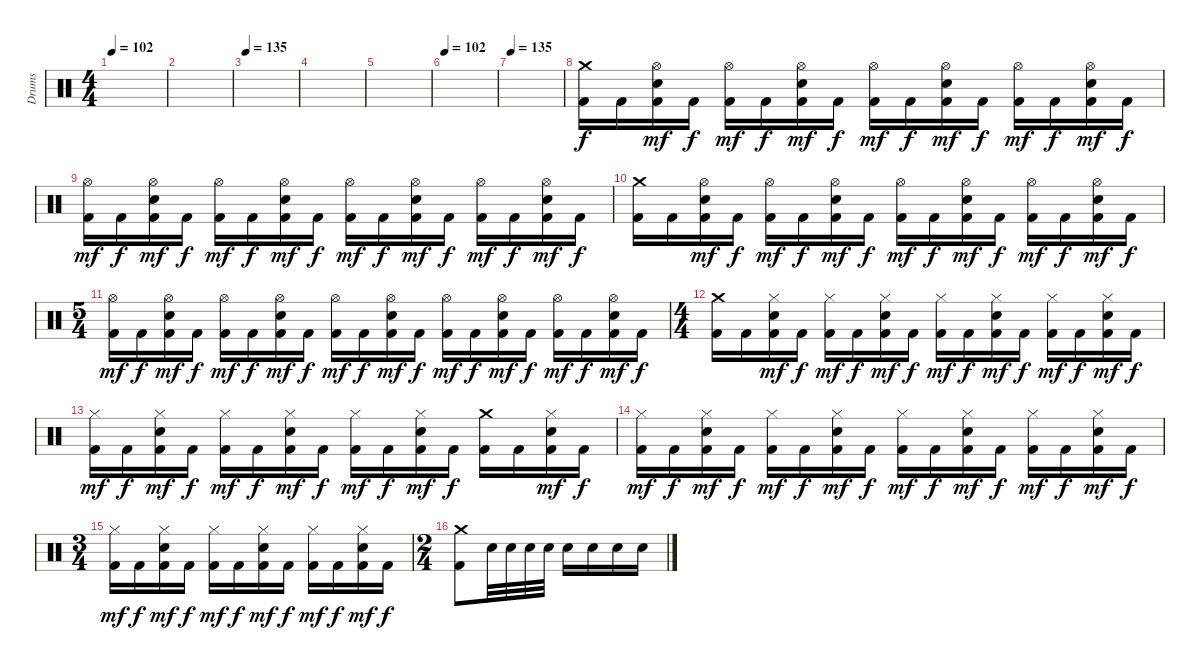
\track ("Drums" "Drums") {instrument percussion}
\staff {score}
\articulation defaults
\ts (4 4)
\tempo 102
\clef neutral
\ks c
|
|
\tempo 135
|
|
|
\tempo 102
|
\tempo 135
|
("Crash medium (hit)" "Kick (hit) 2").16 "Kick (hit) 2".16 ("Hi-Hat (open)" "Electric Snare (hit)" "Kick (hit) 2").16{dy mf} "Kick (hit) 2".16{dy f} ("Hi-Hat (open)" "Kick (hit) 2").16{dy mf} "Kick (hit) 2".16{dy f} ("Hi-Hat (open)" "Electric Snare (hit)" "Kick (hit) 2").16{dy mf} "Kick (hit) 2".16{dy f} ("Hi-Hat (open)" "Kick (hit) 2").16{dy mf} "Kick (hit) 2".16{dy f} ("Hi-Hat (open)" "Electric Snare (hit)" "Kick (hit) 2").16{dy mf} "Kick (hit) 2".16{dy f} ("Hi-Hat (open)" "Kick (hit) 2").16{dy mf} "Kick (hit) 2".16{dy f} ("Hi-Hat (open)" "Electric Snare (hit)" "Kick (hit) 2").16{dy mf} "Kick (hit) 2".16{dy f} |
("Hi-Hat (open)" "Kick (hit) 2").16{dy mf} "Kick (hit) 2".16{dy f} ("Hi-Hat (open)" "Electric Snare (hit)" "Kick (hit) 2").16{dy mf} "Kick (hit) 2".16{dy f} ("Hi-Hat (open)" "Kick (hit) 2").16{dy mf} "Kick (hit) 2".16{dy f} ("Hi-Hat (open)" "Electric Snare (hit)" "Kick (hit) 2").16{dy mf} "Kick (hit) 2".16{dy f} ("Hi-Hat (open)" "Kick (hit) 2").16{dy mf} "Kick (hit) 2".16{dy f} ("Hi-Hat (open)" "Electric Snare (hit)" "Kick (hit) 2").16{dy mf} "Kick (hit) 2".16{dy f} ("Hi-Hat (open)" "Kick (hit) 2").16{dy mf} "Kick (hit) 2".16{dy f} ("Hi-Hat (open)" "Electric Snare (hit)" "Kick (hit) 2").16{dy mf} "Kick (hit) 2".16{dy f} |
("Crash medium (hit)" "Kick (hit) 2").16 "Kick (hit) 2".16 ("Hi-Hat (open)" "Electric Snare (hit)" "Kick (hit) 2").16{dy mf} "Kick (hit) 2".16{dy f} ("Hi-Hat (open)" "Kick (hit) 2").16{dy mf} "Kick (hit) 2".16{dy f} ("Hi-Hat (open)" "Electric Snare (hit)" "Kick (hit) 2").16{dy mf} "Kick (hit) 2".16{dy f} ("Hi-Hat (open)" "Kick (hit) 2").16{dy mf} "Kick (hit) 2".16{dy f} ("Hi-Hat (open)" "Electric Snare (hit)" "Kick (hit) 2").16{dy mf} "Kick (hit) 2".16{dy f} ("Hi-Hat (open)" "Kick (hit) 2").16{dy mf} "Kick (hit) 2".16{dy f} ("Hi-Hat (open)" "Electric Snare (hit)" "Kick (hit) 2").16{dy mf} "Kick (hit) 2".16{dy f} |
\ts (5 4)
("Hi-Hat (open)" "Kick (hit) 2").16{dy mf} "Kick (hit) 2".16{dy f} ("Hi-Hat (open)" "Electric Snare (hit)" "Kick (hit) 2").16{dy mf} "Kick (hit) 2".16{dy f} ("Hi-Hat (open)" "Kick (hit) 2").16{dy mf} "Kick (hit) 2".16{dy f} ("Hi-Hat (open)" "Electric Snare (hit)" "Kick (hit) 2").16{dy mf} "Kick (hit) 2".16{dy f} ("Hi-Hat (open)" "Kick (hit) 2").16{dy mf} "Kick (hit) 2".16{dy f} ("Hi-Hat (open)" "Electric Snare (hit)" "Kick (hit) 2").16{dy mf} "Kick (hit) 2".16{dy f} ("Hi-Hat (open)" "Kick (hit) 2").16{dy mf} "Kick (hit) 2".16{dy f} ("Hi-Hat (open)" "Electric Snare (hit)" "Kick (hit) 2").16{dy mf} "Kick (hit) 2".16{dy f} ("Hi-Hat (open)" "Kick (hit) 2").16{dy mf} "Kick (hit) 2".16{dy f} ("Hi-Hat (open)" "Electric Snare (hit)" "Kick (hit) 2").16{dy mf} "Kick (hit) 2".16{dy f} |
\ts (4 4)
("Crash medium (hit)" "Kick (hit) 2").16 "Kick (hit) 2".16 ("Hi-Hat (closed)" "Electric Snare (hit)" "Kick (hit) 2").16{dy mf} "Kick (hit) 2".16{dy f} ("Hi-Hat (closed)" "Kick (hit) 2").16{dy mf} "Kick (hit) 2".16{dy f} ("Hi-Hat (closed)" "Electric Snare (hit)" "Kick (hit) 2").16{dy mf} "Kick (hit) 2".16{dy f} ("Hi-Hat (closed)" "Kick (hit) 2").16{dy mf} "Kick (hit) 2".16{dy f} ("Hi-Hat (closed)" "Electric Snare (hit)" "Kick (hit) 2").16{dy mf} "Kick (hit) 2".16{dy f} ("Hi-Hat (closed)" "Kick (hit) 2").16{dy mf} "Kick (hit) 2".16{dy f} ("Hi-Hat (closed)" "Electric Snare (hit)" "Kick (hit) 2").16{dy mf} "Kick (hit) 2".16{dy f} |
("Hi-Hat (closed)" "Kick (hit) 2").16{dy mf} "Kick (hit) 2".16{dy f} ("Hi-Hat (closed)" "Electric Snare (hit)" "Kick (hit) 2").16{dy mf} "Kick (hit) 2".16{dy f} ("Hi-Hat (closed)" "Kick (hit) 2").16{dy mf} "Kick (hit) 2".16{dy f} ("Hi-Hat (closed)" "Electric Snare (hit)" "Kick (hit) 2").16{dy mf} "Kick (hit) 2".16{dy f} ("Hi-Hat (closed)" "Kick (hit) 2").16{dy mf} "Kick (hit) 2".16{dy f} ("Hi-Hat (closed)" "Electric Snare (hit)" "Kick (hit) 2").16{dy mf} "Kick (hit) 2".16{dy f} ("Crash medium (hit)" "Kick (hit) 2").16 "Kick (hit) 2".16 ("Hi-Hat (closed)" "Electric Snare (hit)" "Kick (hit) 2").16{dy mf} "Kick (hit) 2".16{dy f} |
("Hi-Hat (closed)" "Kick (hit) 2").16{dy mf} "Kick (hit) 2".16{dy f} ("Hi-Hat (closed)" "Electric Snare (hit)" "Kick (hit) 2").16{dy mf} "Kick (hit) 2".16{dy f} ("Hi-Hat (closed)" "Kick (hit) 2").16{dy mf} "Kick (hit) 2".16{dy f} ("Hi-Hat (closed)" "Electric Snare (hit)" "Kick (hit) 2").16{dy mf} "Kick (hit) 2".16{dy f} ("Hi-Hat (closed)" "Kick (hit) 2").16{dy mf} "Kick (hit) 2".16{dy f} ("Hi-Hat (closed)" "Electric Snare (hit)" "Kick (hit) 2").16{dy mf} "Kick (hit) 2".16{dy f} ("Hi-Hat (closed)" "Kick (hit) 2").16{dy mf} "Kick (hit) 2".16{dy f} ("Hi-Hat (closed)" "Electric Snare (hit)" "Kick (hit) 2").16{dy mf} "Kick (hit) 2".16{dy f} |
\ts (3 4)
("Hi-Hat (closed)" "Kick (hit) 2").16{dy mf} "Kick (hit) 2".16{dy f} ("Hi-Hat (closed)" "Electric Snare (hit)" "Kick (hit) 2").16{dy mf} "Kick (hit) 2".16{dy f} ("Hi-Hat (closed)" "Kick (hit) 2").16{dy mf} "Kick (hit) 2".16{dy f} ("Hi-Hat (closed)" "Electric Snare (hit)" "Kick (hit) 2").16{dy mf} "Kick (hit) 2".16{dy f} ("Hi-Hat (closed)" "Kick (hit) 2").16{dy mf} "Kick (hit) 2".16{dy f} ("Hi-Hat (closed)" "Electric Snare (hit)" "Kick (hit) 2").16{dy mf} "Kick (hit) 2".16{dy f} |
\ts (2 4)
("Crash medium (hit)" "Kick (hit) 2").8 "Electric Snare (hit)".32 "Electric Snare (hit)".32 "Electric Snare (hit)".32 "Electric Snare (hit)".32 "Electric Snare (hit)".16 "Electric Snare (hit)".16 "Electric Snare (hit)".16 "Electric Snare (hit)".16
